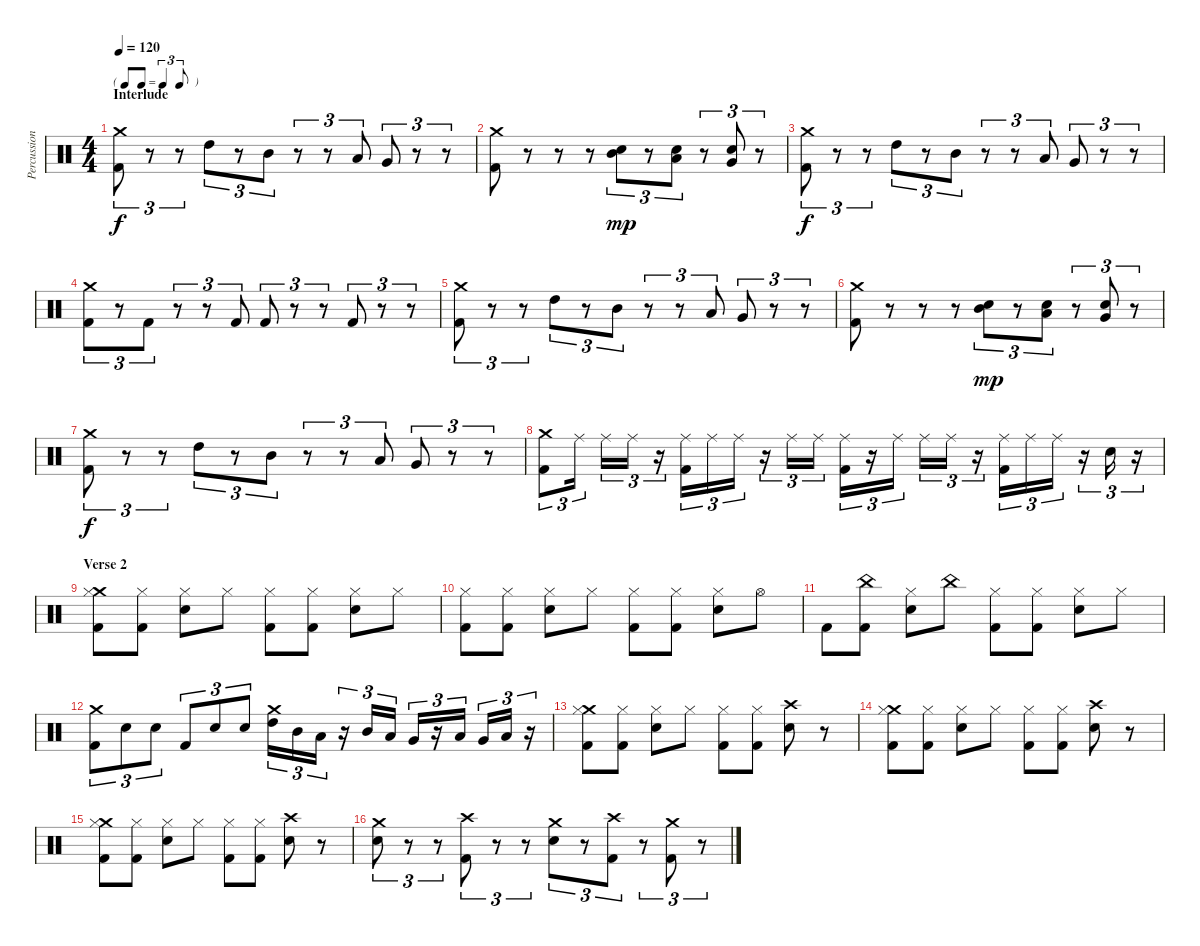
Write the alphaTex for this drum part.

\track ("Percussion" "Percussion") {instrument percussion}
\staff {score}
\articulation defaults
\ts (4 4)
\tf triplet8th
\section ("" "Interlude")
\tempo 120
\clef neutral
\ks c
("Crash medium (hit)" "Kick (hit) 2").8{tu (3 2) dy f} r.8{tu (3 2)} r.8{tu (3 2)} "High Tom (hit)".8{tu (3 2)} r.8{tu (3 2)} "Mid Tom (hit)".8{tu (3 2)} r.8{tu (3 2)} r.8{tu (3 2)} "Low Tom (hit)".8{tu (3 2)} "Very Low Tom (hit)".8{tu (3 2)} r.8{tu (3 2)} r.8{tu (3 2)} |
("Crash medium (hit)" "Kick (hit) 2").8 r.8 r.8 r.8 ("Mid Tom (hit)" "Electric Snare (hit)").8{tu (3 2) dy mp} r.8{tu (3 2)} ("Low Tom (hit)" "Electric Snare (hit)").8{tu (3 2)} r.8{tu (3 2)} ("Very Low Tom (hit)" "Electric Snare (hit)").8{tu (3 2)} r.8{tu (3 2)} |
("Crash medium (hit)" "Kick (hit) 2").8{tu (3 2) dy f} r.8{tu (3 2)} r.8{tu (3 2)} "High Tom (hit)".8{tu (3 2)} r.8{tu (3 2)} "Mid Tom (hit)".8{tu (3 2)} r.8{tu (3 2)} r.8{tu (3 2)} "Low Tom (hit)".8{tu (3 2)} "Very Low Tom (hit)".8{tu (3 2)} r.8{tu (3 2)} r.8{tu (3 2)} |
("Crash medium (hit)" "Kick (hit) 2").8{tu (3 2)} r.8{tu (3 2)} "Kick (hit) 2".8{tu (3 2)} r.8{tu (3 2)} r.8{tu (3 2)} "Kick (hit) 2".8{tu (3 2)} "Kick (hit) 2".8{tu (3 2)} r.8{tu (3 2)} r.8{tu (3 2)} "Kick (hit) 2".8{tu (3 2)} r.8{tu (3 2)} r.8{tu (3 2)} |
("Crash medium (hit)" "Kick (hit) 2").8{tu (3 2)} r.8{tu (3 2)} r.8{tu (3 2)} "High Tom (hit)".8{tu (3 2)} r.8{tu (3 2)} "Mid Tom (hit)".8{tu (3 2)} r.8{tu (3 2)} r.8{tu (3 2)} "Low Tom (hit)".8{tu (3 2)} "Very Low Tom (hit)".8{tu (3 2)} r.8{tu (3 2)} r.8{tu (3 2)} |
("Crash medium (hit)" "Kick (hit) 2").8 r.8 r.8 r.8 ("Mid Tom (hit)" "Electric Snare (hit)").8{tu (3 2) dy mp} r.8{tu (3 2)} ("Low Tom (hit)" "Electric Snare (hit)").8{tu (3 2)} r.8{tu (3 2)} ("Very Low Tom (hit)" "Electric Snare (hit)").8{tu (3 2)} r.8{tu (3 2)} |
("Crash medium (hit)" "Kick (hit) 2").8{tu (3 2) dy f} r.8{tu (3 2)} r.8{tu (3 2)} "High Tom (hit)".8{tu (3 2)} r.8{tu (3 2)} "Mid Tom (hit)".8{tu (3 2)} r.8{tu (3 2)} r.8{tu (3 2)} "Low Tom (hit)".8{tu (3 2)} "Very Low Tom (hit)".8{tu (3 2)} r.8{tu (3 2)} r.8{tu (3 2)} |
("Crash medium (hit)" "Kick (hit) 2").8{tu (3 2)} "Ride (middle)".16{tu (3 2)} "Ride (middle)".16{tu (3 2)} "Ride (middle)".16{tu (3 2)} r.16{tu (3 2)} ("Ride (middle)" "Kick (hit) 2").16{tu (3 2)} "Ride (middle)".16{tu (3 2)} "Ride (middle)".16{tu (3 2)} r.16{tu (3 2)} "Ride (middle)".16{tu (3 2)} "Ride (middle)".16{tu (3 2)} ("Ride (middle)" "Kick (hit) 2").16{tu (3 2)} r.16{tu (3 2)} "Ride (middle)".16{tu (3 2)} "Ride (middle)".16{tu (3 2)} "Ride (middle)".16{tu (3 2)} r.16{tu (3 2)} ("Ride (middle)" "Kick (hit) 2").16{tu (3 2)} "Ride (middle)".16{tu (3 2)} "Ride (middle)".16{tu (3 2)} r.16{tu (3 2)} "Electric Snare (hit)".16{tu (3 2)} r.16{tu (3 2)} |
\section ("" "Verse 2")
("Crash medium (hit)" "Hi-Hat (closed)" "Kick (hit) 2").8 ("Hi-Hat (closed)" "Kick (hit) 2").8 ("Hi-Hat (closed)" "Electric Snare (hit)").8 "Hi-Hat (closed)".8 ("Hi-Hat (closed)" "Kick (hit) 2").8 ("Hi-Hat (closed)" "Kick (hit) 2").8 ("Hi-Hat (closed)" "Electric Snare (hit)").8 "Hi-Hat (closed)".8 |
("Hi-Hat (closed)" "Kick (hit) 2").8 ("Hi-Hat (closed)" "Kick (hit) 2").8 ("Hi-Hat (closed)" "Electric Snare (hit)").8 "Hi-Hat (closed)".8 ("Hi-Hat (closed)" "Kick (hit) 2").8 ("Hi-Hat (closed)" "Kick (hit) 2").8 ("Hi-Hat (closed)" "Electric Snare (hit)").8 "Hi-Hat (open)".8 |
"Kick (hit) 2".8 ("China (hit)" "Kick (hit) 2").8 ("Hi-Hat (closed)" "Electric Snare (hit)").8 "China (hit)".8 ("Hi-Hat (closed)" "Kick (hit) 2").8 ("Hi-Hat (closed)" "Kick (hit) 2").8 ("Hi-Hat (closed)" "Electric Snare (hit)").8 "Hi-Hat (closed)".8 |
("Crash medium (hit)" "Kick (hit) 2").8{tu (3 2)} "Electric Snare (hit)".8{tu (3 2)} "Electric Snare (hit)".8{tu (3 2)} "Kick (hit) 2".8{tu (3 2)} "Electric Snare (hit)".8{tu (3 2)} "Electric Snare (hit)".8{tu (3 2)} ("Crash medium (hit)" "High Tom (hit)").16{tu (3 2)} "Mid Tom (hit)".16{tu (3 2)} "Low Tom (hit)".16{tu (3 2)} r.16{tu (3 2)} "Mid Tom (hit)".16{tu (3 2)} "Low Tom (hit)".16{tu (3 2)} "Very Low Tom (hit)".16{tu (3 2)} r.16{tu (3 2)} "Low Tom (hit)".16{tu (3 2)} "Very Low Tom (hit)".16{tu (3 2)} "Low Floor Tom (hit)".16{tu (3 2)} r.16{tu (3 2)} |
("Crash medium (hit)" "Hi-Hat (closed)" "Kick (hit) 2").8 ("Hi-Hat (closed)" "Kick (hit) 2").8 ("Hi-Hat (closed)" "Electric Snare (hit)").8 "Hi-Hat (closed)".8 ("Hi-Hat (closed)" "Kick (hit) 2").8 ("Hi-Hat (closed)" "Kick (hit) 2").8 ("Crash high (hit)" "Electric Snare (hit)").8 r.8 |
("Crash medium (hit)" "Hi-Hat (closed)" "Kick (hit) 2").8 ("Hi-Hat (closed)" "Kick (hit) 2").8 ("Hi-Hat (closed)" "Electric Snare (hit)").8 "Hi-Hat (closed)".8 ("Hi-Hat (closed)" "Kick (hit) 2").8 ("Hi-Hat (closed)" "Kick (hit) 2").8 ("Crash high (hit)" "Electric Snare (hit)").8 r.8 |
("Crash medium (hit)" "Hi-Hat (closed)" "Kick (hit) 2").8 ("Hi-Hat (closed)" "Kick (hit) 2").8 ("Hi-Hat (closed)" "Electric Snare (hit)").8 "Hi-Hat (closed)".8 ("Hi-Hat (closed)" "Kick (hit) 2").8 ("Hi-Hat (closed)" "Kick (hit) 2").8 ("Crash high (hit)" "Electric Snare (hit)").8 r.8 |
("Crash medium (hit)" "Electric Snare (hit)").8{tu (3 2)} r.8{tu (3 2)} r.8{tu (3 2)} ("Crash high (hit)" "Kick (hit) 2").8{tu (3 2)} r.8{tu (3 2)} r.8{tu (3 2)} ("Crash medium (hit)" "Electric Snare (hit)").8{tu (3 2)} r.8{tu (3 2)} ("Crash high (hit)" "Kick (hit) 2").8{tu (3 2)} r.8{tu (3 2)} ("Crash medium (hit)" "Kick (hit) 2").8{tu (3 2)} r.8{tu (3 2)}
